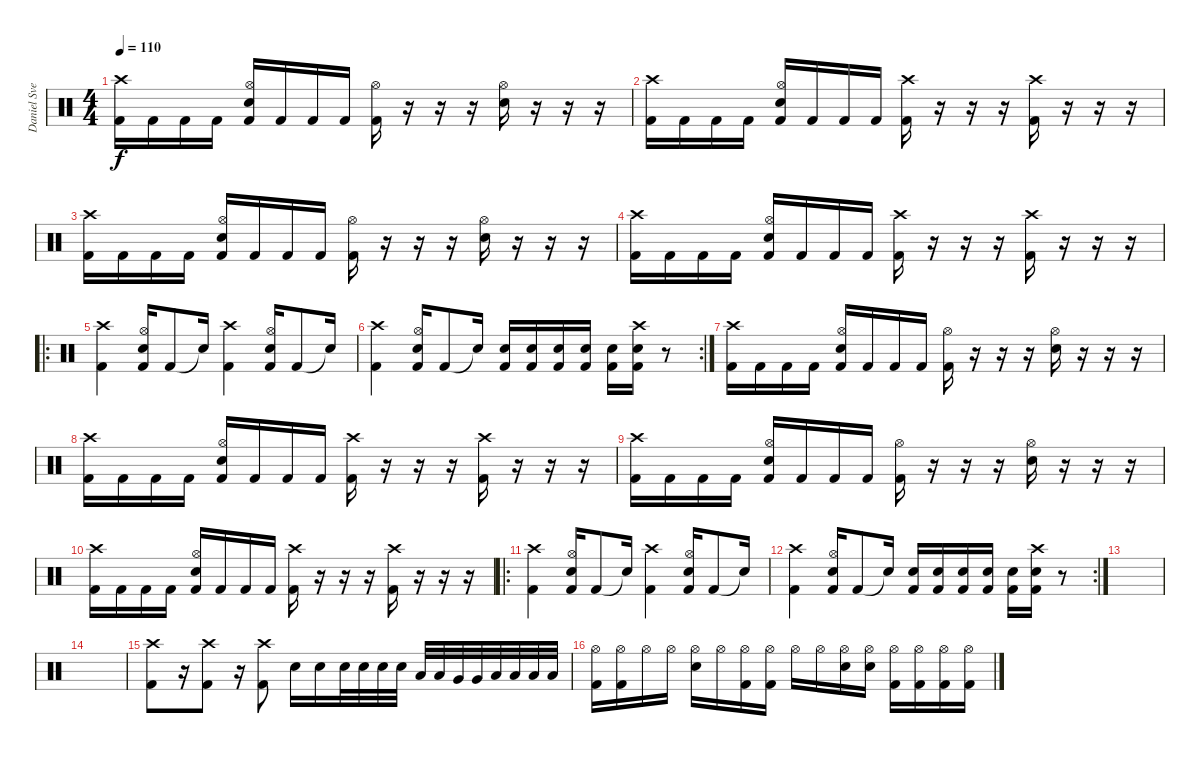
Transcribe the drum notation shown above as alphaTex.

\track ("Daniel Svensson" "Daniel Sve") {instrument percussion}
\staff {score}
\articulation defaults
\ts (4 4)
\tempo 110
\clef neutral
\ks c
("Crash high (hit)" "Kick (hit) 2").16{dy f} "Kick (hit) 2".16 "Kick (hit) 2".16 "Kick (hit) 2".16 ("Hi-Hat (open)" "Snare (hit) 2" "Kick (hit) 2").16 "Kick (hit) 2".16 "Kick (hit) 2".16 "Kick (hit) 2".16 ("Hi-Hat (open)" "Kick (hit) 2").16 r.16 r.16 r.16 ("Hi-Hat (open)" "Snare (hit) 2").16 r.16 r.16 r.16 |
("Crash high (hit)" "Kick (hit) 2").16 "Kick (hit) 2".16 "Kick (hit) 2".16 "Kick (hit) 2".16 ("Hi-Hat (open)" "Snare (hit) 2" "Kick (hit) 2").16 "Kick (hit) 2".16 "Kick (hit) 2".16 "Kick (hit) 2".16 ("Crash high (hit)" "Kick (hit) 2").16 r.16 r.16 r.16 ("Crash high (hit)" "Kick (hit) 2").16 r.16 r.16 r.16 |
("Crash high (hit)" "Kick (hit) 2").16 "Kick (hit) 2".16 "Kick (hit) 2".16 "Kick (hit) 2".16 ("Hi-Hat (open)" "Snare (hit) 2" "Kick (hit) 2").16 "Kick (hit) 2".16 "Kick (hit) 2".16 "Kick (hit) 2".16 ("Hi-Hat (open)" "Kick (hit) 2").16 r.16 r.16 r.16 ("Hi-Hat (open)" "Snare (hit) 2").16 r.16 r.16 r.16 |
("Crash high (hit)" "Kick (hit) 2").16 "Kick (hit) 2".16 "Kick (hit) 2".16 "Kick (hit) 2".16 ("Hi-Hat (open)" "Snare (hit) 2" "Kick (hit) 2").16 "Kick (hit) 2".16 "Kick (hit) 2".16 "Kick (hit) 2".16 ("Crash high (hit)" "Kick (hit) 2").16 r.16 r.16 r.16 ("Crash high (hit)" "Kick (hit) 2").16 r.16 r.16 r.16 |
\ro
("Crash high (hit)" "Kick (hit) 2").4 ("Hi-Hat (open)" "Snare (hit) 2" "Kick (hit) 2").16 "Kick (hit) 2".8 "Snare (hit)"{t}.16 ("Crash high (hit)" "Kick (hit) 2").4 ("Hi-Hat (open)" "Snare (hit) 2" "Kick (hit) 2").16 "Kick (hit) 2".8 "Snare (hit)"{t}.16 |
\rc 2
("Crash high (hit)" "Kick (hit) 2").4 ("Hi-Hat (open)" "Snare (hit) 2" "Kick (hit) 2").16 "Kick (hit) 2".8 "Snare (hit)"{t}.16 ("Snare (hit) 2" "Kick (hit) 2").16 ("Snare (hit) 2" "Kick (hit) 2").16 ("Snare (hit) 2" "Kick (hit) 2").16 ("Snare (hit) 2" "Kick (hit) 2").16 ("Snare (hit) 2" "Kick (hit) 2").16 ("Crash high (hit)" "Snare (hit) 2" "Kick (hit) 2").16 r.8 |
("Crash high (hit)" "Kick (hit) 2").16 "Kick (hit) 2".16 "Kick (hit) 2".16 "Kick (hit) 2".16 ("Hi-Hat (open)" "Snare (hit) 2" "Kick (hit) 2").16 "Kick (hit) 2".16 "Kick (hit) 2".16 "Kick (hit) 2".16 ("Hi-Hat (open)" "Kick (hit) 2").16 r.16 r.16 r.16 ("Hi-Hat (open)" "Snare (hit) 2").16 r.16 r.16 r.16 |
("Crash high (hit)" "Kick (hit) 2").16 "Kick (hit) 2".16 "Kick (hit) 2".16 "Kick (hit) 2".16 ("Hi-Hat (open)" "Snare (hit) 2" "Kick (hit) 2").16 "Kick (hit) 2".16 "Kick (hit) 2".16 "Kick (hit) 2".16 ("Crash high (hit)" "Kick (hit) 2").16 r.16 r.16 r.16 ("Crash high (hit)" "Kick (hit) 2").16 r.16 r.16 r.16 |
("Crash high (hit)" "Kick (hit) 2").16 "Kick (hit) 2".16 "Kick (hit) 2".16 "Kick (hit) 2".16 ("Hi-Hat (open)" "Snare (hit) 2" "Kick (hit) 2").16 "Kick (hit) 2".16 "Kick (hit) 2".16 "Kick (hit) 2".16 ("Hi-Hat (open)" "Kick (hit) 2").16 r.16 r.16 r.16 ("Hi-Hat (open)" "Snare (hit) 2").16 r.16 r.16 r.16 |
("Crash high (hit)" "Kick (hit) 2").16 "Kick (hit) 2".16 "Kick (hit) 2".16 "Kick (hit) 2".16 ("Hi-Hat (open)" "Snare (hit) 2" "Kick (hit) 2").16 "Kick (hit) 2".16 "Kick (hit) 2".16 "Kick (hit) 2".16 ("Crash high (hit)" "Kick (hit) 2").16 r.16 r.16 r.16 ("Crash high (hit)" "Kick (hit) 2").16 r.16 r.16 r.16 |
\ro
("Crash high (hit)" "Kick (hit) 2").4 ("Hi-Hat (open)" "Snare (hit) 2" "Kick (hit) 2").16 "Kick (hit) 2".8 "Snare (hit)"{t}.16 ("Crash high (hit)" "Kick (hit) 2").4 ("Hi-Hat (open)" "Snare (hit) 2" "Kick (hit) 2").16 "Kick (hit) 2".8 "Snare (hit)"{t}.16 |
\rc 2
("Crash high (hit)" "Kick (hit) 2").4 ("Hi-Hat (open)" "Snare (hit) 2" "Kick (hit) 2").16 "Kick (hit) 2".8 "Snare (hit)"{t}.16 ("Snare (hit) 2" "Kick (hit) 2").16 ("Snare (hit) 2" "Kick (hit) 2").16 ("Snare (hit) 2" "Kick (hit) 2").16 ("Snare (hit) 2" "Kick (hit) 2").16 ("Snare (hit) 2" "Kick (hit) 2").16 ("Crash high (hit)" "Snare (hit) 2" "Kick (hit) 2").16 r.8 |
|
|
("Crash high (hit)" "Kick (hit) 2").8 r.16 ("Crash high (hit)" "Kick (hit) 2").8 r.16 ("Crash high (hit)" "Kick (hit) 2").8 "Snare (hit) 2".16 "Snare (hit) 2".16 "Snare (hit) 2".32 "Snare (hit) 2".32 "Snare (hit) 2".32 "Snare (hit) 2".32 "Low Tom (hit)".32 "Low Tom (hit)".32 "Very Low Tom (hit)".32 "Very Low Tom (hit)".32 "Low Floor Tom (hit)".32 "Low Floor Tom (hit)".32 "Low Floor Tom (hit)".32 "Low Floor Tom (hit)".32 |
("Hi-Hat (open)" "Kick (hit) 2").16 ("Hi-Hat (open)" "Kick (hit) 2").16 "Hi-Hat (open)".16 "Hi-Hat (open)".16 ("Hi-Hat (open)" "Snare (hit) 2").16 "Hi-Hat (open)".16 ("Hi-Hat (open)" "Kick (hit) 2").16 ("Hi-Hat (open)" "Kick (hit) 2").16 "Hi-Hat (open)".16 "Hi-Hat (open)".16 ("Hi-Hat (open)" "Snare (hit) 2").16 ("Hi-Hat (open)" "Snare (hit) 2").16 ("Hi-Hat (open)" "Kick (hit) 2").16 ("Hi-Hat (open)" "Kick (hit) 2").16 ("Hi-Hat (open)" "Kick (hit) 2").16 ("Hi-Hat (open)" "Kick (hit) 2").16
